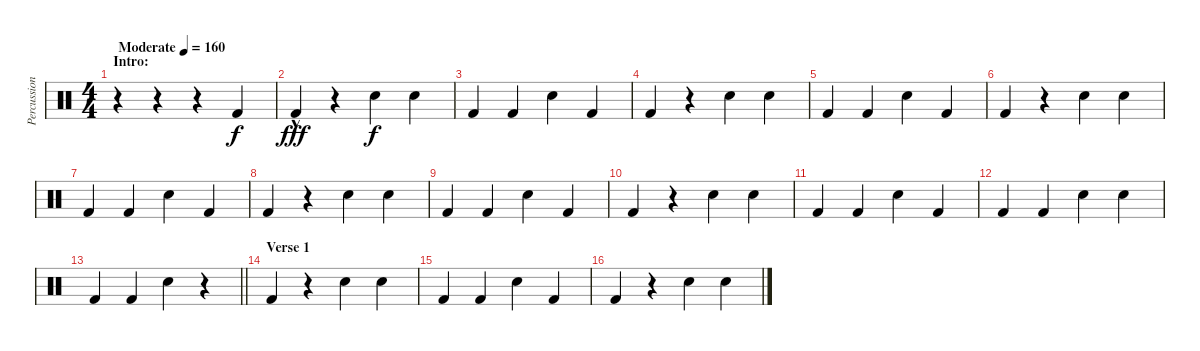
\track ("Percussion" "Percussion") {instrument percussion}
\staff {score}
\articulation defaults
\ts (4 4)
\section ("" "Intro:")
\tempo (160 "Moderate")
\clef neutral
\ks c
r.4{dy f} r.4 r.4 "Kick (hit) 2".4 |
"Kick (hit) 2"{hac}.4{dy fff} r.4 "Electric Snare (hit)".4{dy f} "Electric Snare (hit)".4 |
"Kick (hit) 2".4 "Kick (hit) 2".4 "Electric Snare (hit)".4 "Kick (hit) 2".4 |
"Kick (hit) 2".4 r.4 "Electric Snare (hit)".4 "Electric Snare (hit)".4 |
"Kick (hit) 2".4 "Kick (hit) 2".4 "Electric Snare (hit)".4 "Kick (hit) 2".4 |
"Kick (hit) 2".4 r.4 "Electric Snare (hit)".4 "Electric Snare (hit)".4 |
"Kick (hit) 2".4 "Kick (hit) 2".4 "Electric Snare (hit)".4 "Kick (hit) 2".4 |
"Kick (hit) 2".4 r.4 "Electric Snare (hit)".4 "Electric Snare (hit)".4 |
"Kick (hit) 2".4 "Kick (hit) 2".4 "Electric Snare (hit)".4 "Kick (hit) 2".4 |
"Kick (hit) 2".4 r.4 "Electric Snare (hit)".4 "Electric Snare (hit)".4 |
"Kick (hit) 2".4 "Kick (hit) 2".4 "Electric Snare (hit)".4 "Kick (hit) 2".4 |
"Kick (hit) 2".4 "Kick (hit) 2".4 "Electric Snare (hit)".4 "Electric Snare (hit)".4 |
\barLineRight lightlight "Kick (hit) 2".4 "Kick (hit) 2".4 "Electric Snare (hit)".4
r.4 |
\section ("" "Verse 1")
"Kick (hit) 2".4 r.4 "Electric Snare (hit)".4 "Electric Snare (hit)".4 |
"Kick (hit) 2".4 "Kick (hit) 2".4 "Electric Snare (hit)".4 "Kick (hit) 2".4 |
"Kick (hit) 2".4 r.4 "Electric Snare (hit)".4 "Electric Snare (hit)".4
